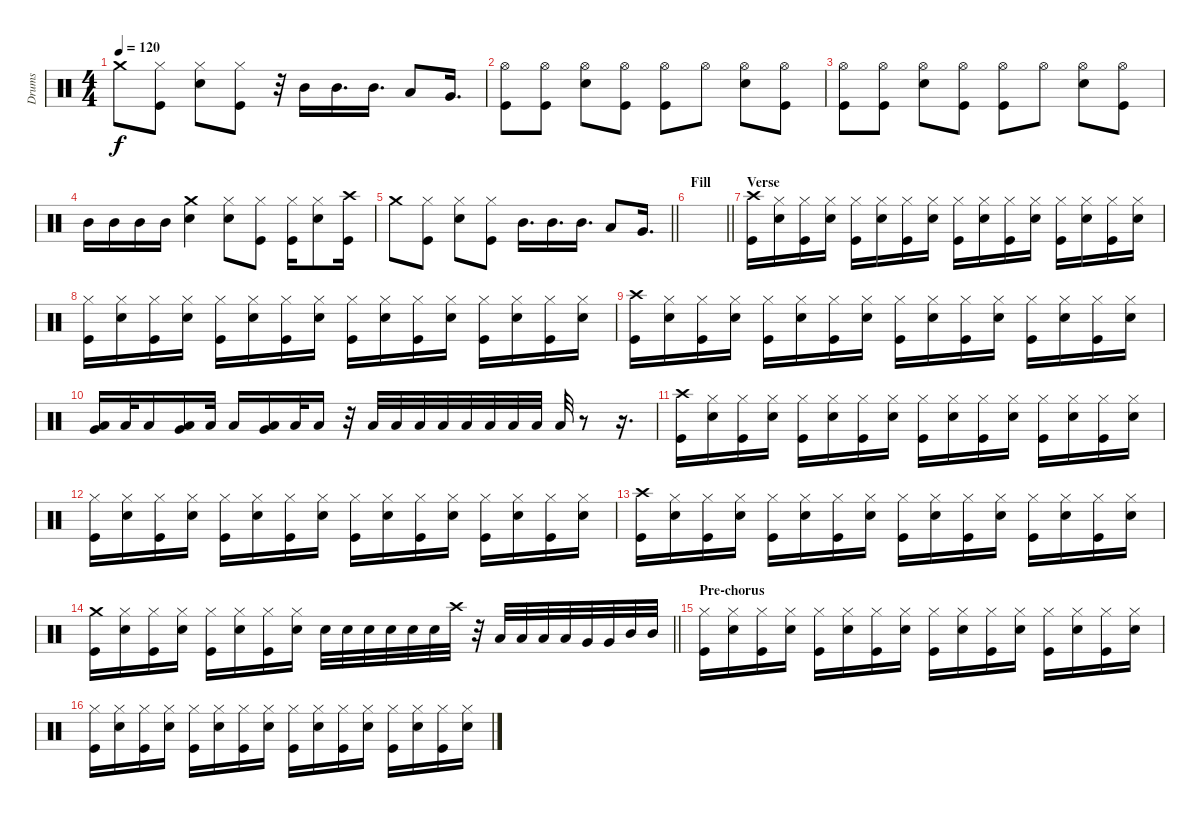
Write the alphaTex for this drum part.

\track ("Drums" "Drums") {instrument percussion}
\staff {score}
\articulation defaults
\ts (4 4)
\tempo 120
\clef neutral
\ks c "Crash medium (hit)".8{dy f}
("Hi-Hat (closed)" "Kick (hit)").8 ("Hi-Hat (closed)" "Electric Snare (hit)").8 ("Hi-Hat (closed)" "Kick (hit)").8 r.32 "Mid Tom (hit)".16 "Mid Tom (hit)".16{d} "Mid Tom (hit)".16{d} "Low Tom (hit)".8 "Very Low Tom (hit)".16{d} |
("Hi-Hat (open)" "Kick (hit)").8 ("Hi-Hat (open)" "Kick (hit)").8 ("Hi-Hat (open)" "Electric Snare (hit)").8 ("Hi-Hat (open)" "Kick (hit)").8 ("Hi-Hat (open)" "Kick (hit)").8 "Hi-Hat (open)".8 ("Hi-Hat (open)" "Electric Snare (hit)").8 ("Hi-Hat (open)" "Kick (hit)").8 |
("Hi-Hat (open)" "Kick (hit)").8 ("Hi-Hat (open)" "Kick (hit)").8 ("Hi-Hat (open)" "Electric Snare (hit)").8 ("Hi-Hat (open)" "Kick (hit)").8 ("Hi-Hat (open)" "Kick (hit)").8 "Hi-Hat (open)".8 ("Hi-Hat (open)" "Electric Snare (hit)").8 ("Hi-Hat (open)" "Kick (hit)").8 |
"Mid Tom (hit)".16 "Mid Tom (hit)".16 "Mid Tom (hit)".16 "Mid Tom (hit)".16 ("Crash medium (hit)" "Electric Snare (hit)").4 ("Hi-Hat (closed)" "Electric Snare (hit)").8 ("Hi-Hat (closed)" "Kick (hit)").8 ("Hi-Hat (closed)" "Kick (hit)").16 ("Hi-Hat (closed)" "Electric Snare (hit)").8 ("Crash high (hit)" "Kick (hit)").16 |
\barLineRight lightlight "Crash medium (hit)".8
("Hi-Hat (closed)" "Kick (hit)").8 ("Hi-Hat (closed)" "Electric Snare (hit)").8 ("Hi-Hat (closed)" "Kick (hit)").8 "Mid Tom (hit)".16{d} "Mid Tom (hit)".16{d} "Mid Tom (hit)".16{d} "Low Tom (hit)".8 "Very Low Tom (hit)".16{d} |
\section ("" "Fill")
\barLineRight lightlight
|
\section ("" "Verse")
("Crash high (hit)" "Kick (hit)").16 ("Hi-Hat (closed)" "Electric Snare (hit)").16 ("Hi-Hat (closed)" "Kick (hit)").16 ("Hi-Hat (closed)" "Electric Snare (hit)").16 ("Hi-Hat (closed)" "Kick (hit)").16 ("Hi-Hat (closed)" "Electric Snare (hit)").16 ("Hi-Hat (closed)" "Kick (hit)").16 ("Hi-Hat (closed)" "Electric Snare (hit)").16 ("Hi-Hat (closed)" "Kick (hit)").16 ("Hi-Hat (closed)" "Electric Snare (hit)").16 ("Hi-Hat (closed)" "Kick (hit)").16 ("Hi-Hat (closed)" "Electric Snare (hit)").16 ("Hi-Hat (closed)" "Kick (hit)").16 ("Hi-Hat (closed)" "Electric Snare (hit)").16 ("Hi-Hat (closed)" "Kick (hit)").16 ("Hi-Hat (closed)" "Electric Snare (hit)").16 |
("Hi-Hat (closed)" "Kick (hit)").16 ("Hi-Hat (closed)" "Electric Snare (hit)").16 ("Hi-Hat (closed)" "Kick (hit)").16 ("Hi-Hat (closed)" "Electric Snare (hit)").16 ("Hi-Hat (closed)" "Kick (hit)").16 ("Hi-Hat (closed)" "Electric Snare (hit)").16 ("Hi-Hat (closed)" "Kick (hit)").16 ("Hi-Hat (closed)" "Electric Snare (hit)").16 ("Hi-Hat (closed)" "Kick (hit)").16 ("Hi-Hat (closed)" "Electric Snare (hit)").16 ("Hi-Hat (closed)" "Kick (hit)").16 ("Hi-Hat (closed)" "Electric Snare (hit)").16 ("Hi-Hat (closed)" "Kick (hit)").16 ("Hi-Hat (closed)" "Electric Snare (hit)").16 ("Hi-Hat (closed)" "Kick (hit)").16 ("Hi-Hat (closed)" "Electric Snare (hit)").16 |
("Crash high (hit)" "Kick (hit)").16 ("Hi-Hat (closed)" "Electric Snare (hit)").16 ("Hi-Hat (closed)" "Kick (hit)").16 ("Hi-Hat (closed)" "Electric Snare (hit)").16 ("Hi-Hat (closed)" "Kick (hit)").16 ("Hi-Hat (closed)" "Electric Snare (hit)").16 ("Hi-Hat (closed)" "Kick (hit)").16 ("Hi-Hat (closed)" "Electric Snare (hit)").16 ("Hi-Hat (closed)" "Kick (hit)").16 ("Hi-Hat (closed)" "Electric Snare (hit)").16 ("Hi-Hat (closed)" "Kick (hit)").16 ("Hi-Hat (closed)" "Electric Snare (hit)").16 ("Hi-Hat (closed)" "Kick (hit)").16 ("Hi-Hat (closed)" "Electric Snare (hit)").16 ("Hi-Hat (closed)" "Kick (hit)").16 ("Hi-Hat (closed)" "Electric Snare (hit)").16 |
("Very Low Tom (hit)" "Low Tom (hit)").16 "Low Tom (hit)".32 "Low Tom (hit)".16 ("Very Low Tom (hit)" "Low Tom (hit)").16 "Low Tom (hit)".32 "Low Tom (hit)".16 ("Very Low Tom (hit)" "Low Tom (hit)").16 "Low Tom (hit)".32 "Low Tom (hit)".16 r.32 "Low Floor Tom (hit)".32 "Low Floor Tom (hit)".32 "Low Floor Tom (hit)".32 "Low Floor Tom (hit)".32 "Low Floor Tom (hit)".32 "Low Floor Tom (hit)".32 "Low Floor Tom (hit)".32 "Low Floor Tom (hit)".32 "Low Floor Tom (hit)".32 r.8 r.16{d} |
("Crash high (hit)" "Kick (hit)").16 ("Hi-Hat (closed)" "Electric Snare (hit)").16 ("Hi-Hat (closed)" "Kick (hit)").16 ("Hi-Hat (closed)" "Electric Snare (hit)").16 ("Hi-Hat (closed)" "Kick (hit)").16 ("Hi-Hat (closed)" "Electric Snare (hit)").16 ("Hi-Hat (closed)" "Kick (hit)").16 ("Hi-Hat (closed)" "Electric Snare (hit)").16 ("Hi-Hat (closed)" "Kick (hit)").16 ("Hi-Hat (closed)" "Electric Snare (hit)").16 ("Hi-Hat (closed)" "Kick (hit)").16 ("Hi-Hat (closed)" "Electric Snare (hit)").16 ("Hi-Hat (closed)" "Kick (hit)").16 ("Hi-Hat (closed)" "Electric Snare (hit)").16 ("Hi-Hat (closed)" "Kick (hit)").16 ("Hi-Hat (closed)" "Electric Snare (hit)").16 |
("Hi-Hat (closed)" "Kick (hit)").16 ("Hi-Hat (closed)" "Electric Snare (hit)").16 ("Hi-Hat (closed)" "Kick (hit)").16 ("Hi-Hat (closed)" "Electric Snare (hit)").16 ("Hi-Hat (closed)" "Kick (hit)").16 ("Hi-Hat (closed)" "Electric Snare (hit)").16 ("Hi-Hat (closed)" "Kick (hit)").16 ("Hi-Hat (closed)" "Electric Snare (hit)").16 ("Hi-Hat (closed)" "Kick (hit)").16 ("Hi-Hat (closed)" "Electric Snare (hit)").16 ("Hi-Hat (closed)" "Kick (hit)").16 ("Hi-Hat (closed)" "Electric Snare (hit)").16 ("Hi-Hat (closed)" "Kick (hit)").16 ("Hi-Hat (closed)" "Electric Snare (hit)").16 ("Hi-Hat (closed)" "Kick (hit)").16 ("Hi-Hat (closed)" "Electric Snare (hit)").16 |
("Crash high (hit)" "Kick (hit)").16 ("Hi-Hat (closed)" "Electric Snare (hit)").16 ("Hi-Hat (closed)" "Kick (hit)").16 ("Hi-Hat (closed)" "Electric Snare (hit)").16 ("Hi-Hat (closed)" "Kick (hit)").16 ("Hi-Hat (closed)" "Electric Snare (hit)").16 ("Hi-Hat (closed)" "Kick (hit)").16 ("Hi-Hat (closed)" "Electric Snare (hit)").16 ("Hi-Hat (closed)" "Kick (hit)").16 ("Hi-Hat (closed)" "Electric Snare (hit)").16 ("Hi-Hat (closed)" "Kick (hit)").16 ("Hi-Hat (closed)" "Electric Snare (hit)").16 ("Hi-Hat (closed)" "Kick (hit)").16 ("Hi-Hat (closed)" "Electric Snare (hit)").16 ("Hi-Hat (closed)" "Kick (hit)").16 ("Hi-Hat (closed)" "Electric Snare (hit)").16 |
\barLineRight lightlight
("Crash medium (hit)" "Kick (hit)").16 ("Hi-Hat (closed)" "Electric Snare (hit)").16 ("Hi-Hat (closed)" "Kick (hit)").16 ("Hi-Hat (closed)" "Electric Snare (hit)").16 ("Hi-Hat (closed)" "Kick (hit)").16 ("Hi-Hat (closed)" "Electric Snare (hit)").16 ("Hi-Hat (closed)" "Kick (hit)").16 ("Hi-Hat (closed)" "Electric Snare (hit)").16 "Electric Snare (hit)".32 "Electric Snare (hit)".32 "Electric Snare (hit)".32 "Electric Snare (hit)".32 "Electric Snare (hit)".32 "Electric Snare (hit)".32 "Crash high (hit)".32 r.32 "Low Tom (hit)".32 "Low Tom (hit)".32 "Low Tom (hit)".32 "Low Tom (hit)".32 "Very Low Tom (hit)".32 "Very Low Tom (hit)".32 "Mid Tom (hit)".32 "Mid Tom (hit)".32 |
\section ("" "Pre-chorus")
("Hi-Hat (closed)" "Kick (hit)").16 ("Hi-Hat (closed)" "Electric Snare (hit)").16 ("Hi-Hat (closed)" "Kick (hit)").16 ("Hi-Hat (closed)" "Electric Snare (hit)").16 ("Hi-Hat (closed)" "Kick (hit)").16 ("Hi-Hat (closed)" "Electric Snare (hit)").16 ("Hi-Hat (closed)" "Kick (hit)").16 ("Hi-Hat (closed)" "Electric Snare (hit)").16 ("Hi-Hat (closed)" "Kick (hit)").16 ("Hi-Hat (closed)" "Electric Snare (hit)").16 ("Hi-Hat (closed)" "Kick (hit)").16 ("Hi-Hat (closed)" "Electric Snare (hit)").16 ("Hi-Hat (closed)" "Kick (hit)").16 ("Hi-Hat (closed)" "Electric Snare (hit)").16 ("Hi-Hat (closed)" "Kick (hit)").16 ("Hi-Hat (closed)" "Electric Snare (hit)").16 |
("Hi-Hat (closed)" "Kick (hit)").16 ("Hi-Hat (closed)" "Electric Snare (hit)").16 ("Hi-Hat (closed)" "Kick (hit)").16 ("Hi-Hat (closed)" "Electric Snare (hit)").16 ("Hi-Hat (closed)" "Kick (hit)").16 ("Hi-Hat (closed)" "Electric Snare (hit)").16 ("Hi-Hat (closed)" "Kick (hit)").16 ("Hi-Hat (closed)" "Electric Snare (hit)").16 ("Hi-Hat (closed)" "Kick (hit)").16 ("Hi-Hat (closed)" "Electric Snare (hit)").16 ("Hi-Hat (closed)" "Kick (hit)").16 ("Hi-Hat (closed)" "Electric Snare (hit)").16 ("Hi-Hat (closed)" "Kick (hit)").16 ("Hi-Hat (closed)" "Electric Snare (hit)").16 ("Hi-Hat (closed)" "Kick (hit)").16 ("Hi-Hat (closed)" "Electric Snare (hit)").16
